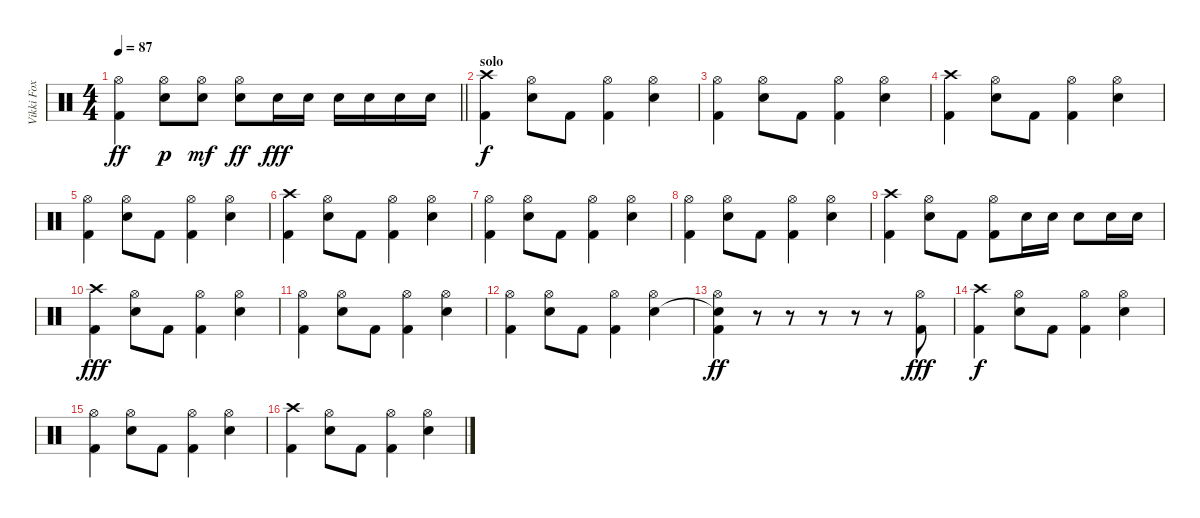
\track ("Vikki Fox" "Vikki Fox") {instrument percussion}
\staff {score}
\articulation defaults
\ts (4 4)
\tempo 87
\clef neutral
\barLineRight lightlight
\ks c
("Hi-Hat (open)" "Kick (hit) 2").4{dy ff} ("Hi-Hat (open)" "Snare (hit) 2").8{dy p} ("Hi-Hat (open)" "Snare (hit) 2").8{dy mf} ("Hi-Hat (open)" "Snare (hit) 2").8{dy ff} "Snare (hit) 2".16{dy fff} "Snare (hit) 2".16 "Snare (hit) 2".16 "Snare (hit) 2".16 "Snare (hit) 2".16 "Snare (hit) 2".16 |
\section ("" "solo")
("Crash high (hit)" "Kick (hit) 2").4{dy f} ("Hi-Hat (open)" "Snare (hit) 2").8 "Kick (hit) 2".8 ("Hi-Hat (open)" "Kick (hit) 2").4 ("Hi-Hat (open)" "Snare (hit) 2").4 |
("Hi-Hat (open)" "Kick (hit) 2").4 ("Hi-Hat (open)" "Snare (hit) 2").8 "Kick (hit) 2".8 ("Hi-Hat (open)" "Kick (hit) 2").4 ("Hi-Hat (open)" "Snare (hit) 2").4 |
("Crash high (hit)" "Kick (hit) 2").4 ("Hi-Hat (open)" "Snare (hit) 2").8 "Kick (hit) 2".8 ("Hi-Hat (open)" "Kick (hit) 2").4 ("Hi-Hat (open)" "Snare (hit) 2").4 |
("Hi-Hat (open)" "Kick (hit) 2").4 ("Hi-Hat (open)" "Snare (hit) 2").8 "Kick (hit) 2".8 ("Hi-Hat (open)" "Kick (hit) 2").4 ("Hi-Hat (open)" "Snare (hit) 2").4 |
("Crash high (hit)" "Kick (hit) 2").4 ("Hi-Hat (open)" "Snare (hit) 2").8 "Kick (hit) 2".8 ("Hi-Hat (open)" "Kick (hit) 2").4 ("Hi-Hat (open)" "Snare (hit) 2").4 |
("Hi-Hat (open)" "Kick (hit) 2").4 ("Hi-Hat (open)" "Snare (hit) 2").8 "Kick (hit) 2".8 ("Hi-Hat (open)" "Kick (hit) 2").4 ("Hi-Hat (open)" "Snare (hit) 2").4 |
("Hi-Hat (open)" "Kick (hit) 2").4 ("Hi-Hat (open)" "Snare (hit) 2").8 "Kick (hit) 2".8 ("Hi-Hat (open)" "Kick (hit) 2").4 ("Hi-Hat (open)" "Snare (hit) 2").4 |
("Crash high (hit)" "Kick (hit) 2").4 ("Hi-Hat (open)" "Snare (hit) 2").8 "Kick (hit) 2".8 ("Hi-Hat (open)" "Kick (hit) 2").8 "Snare (hit) 2".16 "Snare (hit) 2".16 "Snare (hit) 2".8 "Snare (hit) 2".16 "Snare (hit) 2".16 |
("Crash high (hit)" "Kick (hit) 2").4{dy fff volume 11} ("Hi-Hat (open)" "Snare (hit) 2").8 "Kick (hit) 2".8 ("Hi-Hat (open)" "Kick (hit) 2").4 ("Hi-Hat (open)" "Snare (hit) 2").4 |
("Hi-Hat (open)" "Kick (hit) 2").4 ("Hi-Hat (open)" "Snare (hit) 2").8 "Kick (hit) 2".8 ("Hi-Hat (open)" "Kick (hit) 2").4 ("Hi-Hat (open)" "Snare (hit) 2").4 |
("Hi-Hat (open)" "Kick (hit) 2").4 ("Hi-Hat (open)" "Snare (hit) 2").8 "Kick (hit) 2".8 ("Hi-Hat (open)" "Kick (hit) 2").4 ("Hi-Hat (open)" "Snare (hit) 2").4{volume 16} |
("Hi-Hat (open)" "Snare (hit)"{t} "Kick (hit) 2").4{dy ff} r.8{volume 11} r.8 r.8 r.8 r.8 ("Hi-Hat (open)" "Kick (hit) 2").8{dy fff} |
("Crash high (hit)" "Kick (hit) 2").4{dy f} ("Hi-Hat (open)" "Snare (hit) 2").8 "Kick (hit) 2".8 ("Hi-Hat (open)" "Kick (hit) 2").4 ("Hi-Hat (open)" "Snare (hit) 2").4 |
("Hi-Hat (open)" "Kick (hit) 2").4 ("Hi-Hat (open)" "Snare (hit) 2").8 "Kick (hit) 2".8 ("Hi-Hat (open)" "Kick (hit) 2").4 ("Hi-Hat (open)" "Snare (hit) 2").4 |
("Crash high (hit)" "Kick (hit) 2").4 ("Hi-Hat (open)" "Snare (hit) 2").8 "Kick (hit) 2".8 ("Hi-Hat (open)" "Kick (hit) 2").4 ("Hi-Hat (open)" "Snare (hit) 2").4
